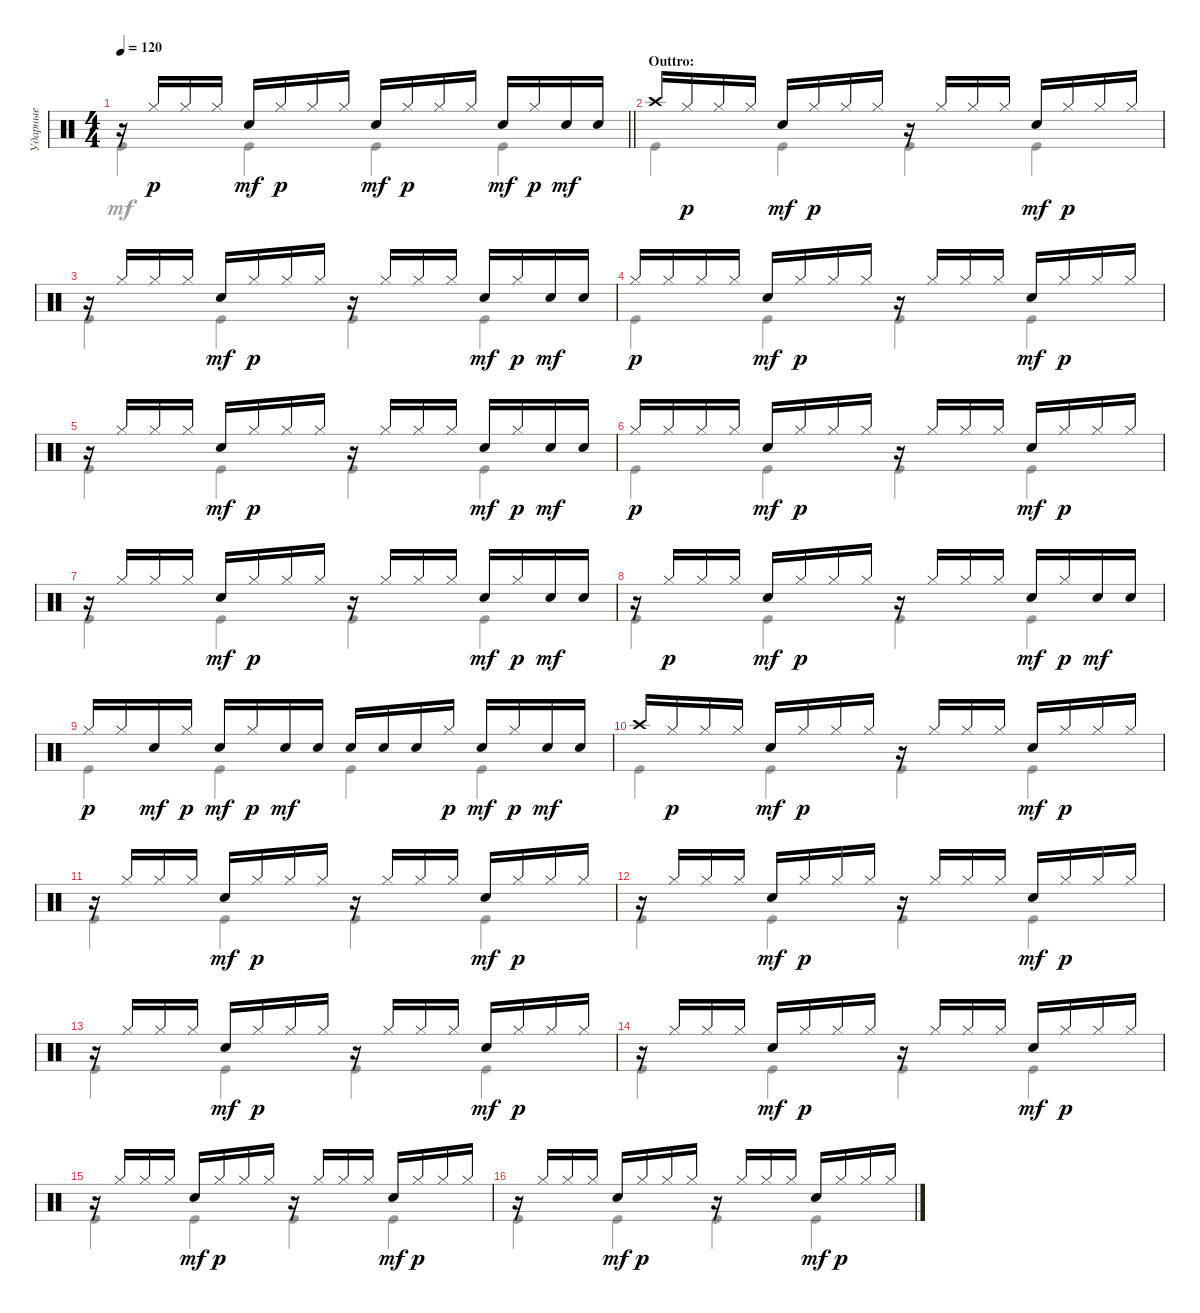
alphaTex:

\track ("Ударные" "Ударные") {instrument percussion}
\staff {score}
\articulation defaults
\voice
\ts (4 4)
\tempo 120
\clef neutral
\barLineRight lightlight
\ks c
r.16{dy p} "Hi-Hat (closed)".16 "Hi-Hat (closed)".16 "Hi-Hat (closed)".16 "Snare (hit) 2".16{dy mf} "Hi-Hat (closed)".16{dy p} "Hi-Hat (closed)".16 "Hi-Hat (closed)".16 "Snare (hit) 2".16{dy mf} "Hi-Hat (closed)".16{dy p} "Hi-Hat (closed)".16 "Hi-Hat (closed)".16 "Snare (hit) 2".16{dy mf} "Hi-Hat (closed)".16{dy p} "Snare (hit) 2".16{dy mf} "Snare (hit) 2".16 |
\section ("" "Outtro:")
"Crash high (hit)".16 "Hi-Hat (closed)".16{dy p} "Hi-Hat (closed)".16 "Hi-Hat (closed)".16 "Snare (hit) 2".16{dy mf} "Hi-Hat (closed)".16{dy p} "Hi-Hat (closed)".16 "Hi-Hat (closed)".16 r.16 "Hi-Hat (closed)".16 "Hi-Hat (closed)".16 "Hi-Hat (closed)".16 "Snare (hit) 2".16{dy mf} "Hi-Hat (closed)".16{dy p} "Hi-Hat (closed)".16 "Hi-Hat (closed)".16 |
r.16 "Hi-Hat (closed)".16 "Hi-Hat (closed)".16 "Hi-Hat (closed)".16 "Snare (hit) 2".16{dy mf} "Hi-Hat (closed)".16{dy p} "Hi-Hat (closed)".16 "Hi-Hat (closed)".16 r.16 "Hi-Hat (closed)".16 "Hi-Hat (closed)".16 "Hi-Hat (closed)".16 "Snare (hit) 2".16{dy mf} "Hi-Hat (closed)".16{dy p} "Snare (hit) 2".16{dy mf} "Snare (hit) 2".16 |
"Hi-Hat (closed)".16{dy p} "Hi-Hat (closed)".16 "Hi-Hat (closed)".16 "Hi-Hat (closed)".16 "Snare (hit) 2".16{dy mf} "Hi-Hat (closed)".16{dy p} "Hi-Hat (closed)".16 "Hi-Hat (closed)".16 r.16 "Hi-Hat (closed)".16 "Hi-Hat (closed)".16 "Hi-Hat (closed)".16 "Snare (hit) 2".16{dy mf} "Hi-Hat (closed)".16{dy p} "Hi-Hat (closed)".16 "Hi-Hat (closed)".16 |
r.16 "Hi-Hat (closed)".16 "Hi-Hat (closed)".16 "Hi-Hat (closed)".16 "Snare (hit) 2".16{dy mf} "Hi-Hat (closed)".16{dy p} "Hi-Hat (closed)".16 "Hi-Hat (closed)".16 r.16 "Hi-Hat (closed)".16 "Hi-Hat (closed)".16 "Hi-Hat (closed)".16 "Snare (hit) 2".16{dy mf} "Hi-Hat (closed)".16{dy p} "Snare (hit) 2".16{dy mf} "Snare (hit) 2".16 |
"Hi-Hat (closed)".16{dy p} "Hi-Hat (closed)".16 "Hi-Hat (closed)".16 "Hi-Hat (closed)".16 "Snare (hit) 2".16{dy mf} "Hi-Hat (closed)".16{dy p} "Hi-Hat (closed)".16 "Hi-Hat (closed)".16 r.16 "Hi-Hat (closed)".16 "Hi-Hat (closed)".16 "Hi-Hat (closed)".16 "Snare (hit) 2".16{dy mf} "Hi-Hat (closed)".16{dy p} "Hi-Hat (closed)".16 "Hi-Hat (closed)".16 |
r.16 "Hi-Hat (closed)".16 "Hi-Hat (closed)".16 "Hi-Hat (closed)".16 "Snare (hit) 2".16{dy mf} "Hi-Hat (closed)".16{dy p} "Hi-Hat (closed)".16 "Hi-Hat (closed)".16 r.16 "Hi-Hat (closed)".16 "Hi-Hat (closed)".16 "Hi-Hat (closed)".16 "Snare (hit) 2".16{dy mf} "Hi-Hat (closed)".16{dy p} "Snare (hit) 2".16{dy mf} "Snare (hit) 2".16 |
r.16 "Hi-Hat (closed)".16{dy p} "Hi-Hat (closed)".16 "Hi-Hat (closed)".16 "Snare (hit) 2".16{dy mf} "Hi-Hat (closed)".16{dy p} "Hi-Hat (closed)".16 "Hi-Hat (closed)".16 r.16 "Hi-Hat (closed)".16 "Hi-Hat (closed)".16 "Hi-Hat (closed)".16 "Snare (hit) 2".16{dy mf} "Hi-Hat (closed)".16{dy p} "Snare (hit) 2".16{dy mf} "Snare (hit) 2".16 |
"Hi-Hat (closed)".16{dy p} "Hi-Hat (closed)".16 "Snare (hit) 2".16{dy mf} "Hi-Hat (closed)".16{dy p} "Snare (hit) 2".16{dy mf} "Hi-Hat (closed)".16{dy p} "Snare (hit) 2".16{dy mf} "Snare (hit) 2".16 "Snare (hit) 2".16 "Snare (hit) 2".16 "Snare (hit) 2".16 "Hi-Hat (closed)".16{dy p} "Snare (hit) 2".16{dy mf} "Hi-Hat (closed)".16{dy p} "Snare (hit) 2".16{dy mf} "Snare (hit) 2".16 |
"Crash high (hit)".16 "Hi-Hat (closed)".16{dy p} "Hi-Hat (closed)".16 "Hi-Hat (closed)".16 "Snare (hit) 2".16{dy mf} "Hi-Hat (closed)".16{dy p} "Hi-Hat (closed)".16 "Hi-Hat (closed)".16 r.16 "Hi-Hat (closed)".16 "Hi-Hat (closed)".16 "Hi-Hat (closed)".16 "Snare (hit) 2".16{dy mf} "Hi-Hat (closed)".16{dy p} "Hi-Hat (closed)".16 "Hi-Hat (closed)".16 |
r.16 "Hi-Hat (closed)".16 "Hi-Hat (closed)".16 "Hi-Hat (closed)".16 "Snare (hit) 2".16{dy mf} "Hi-Hat (closed)".16{dy p} "Hi-Hat (closed)".16 "Hi-Hat (closed)".16 r.16 "Hi-Hat (closed)".16 "Hi-Hat (closed)".16 "Hi-Hat (closed)".16 "Snare (hit) 2".16{dy mf} "Hi-Hat (closed)".16{dy p} "Hi-Hat (closed)".16 "Hi-Hat (closed)".16 |
r.16 "Hi-Hat (closed)".16 "Hi-Hat (closed)".16 "Hi-Hat (closed)".16 "Snare (hit) 2".16{dy mf} "Hi-Hat (closed)".16{dy p} "Hi-Hat (closed)".16 "Hi-Hat (closed)".16 r.16 "Hi-Hat (closed)".16 "Hi-Hat (closed)".16 "Hi-Hat (closed)".16 "Snare (hit) 2".16{dy mf} "Hi-Hat (closed)".16{dy p} "Hi-Hat (closed)".16 "Hi-Hat (closed)".16 |
r.16 "Hi-Hat (closed)".16 "Hi-Hat (closed)".16 "Hi-Hat (closed)".16 "Snare (hit) 2".16{dy mf} "Hi-Hat (closed)".16{dy p} "Hi-Hat (closed)".16 "Hi-Hat (closed)".16 r.16 "Hi-Hat (closed)".16 "Hi-Hat (closed)".16 "Hi-Hat (closed)".16 "Snare (hit) 2".16{dy mf} "Hi-Hat (closed)".16{dy p} "Hi-Hat (closed)".16 "Hi-Hat (closed)".16 |
r.16 "Hi-Hat (closed)".16 "Hi-Hat (closed)".16 "Hi-Hat (closed)".16 "Snare (hit) 2".16{dy mf} "Hi-Hat (closed)".16{dy p} "Hi-Hat (closed)".16 "Hi-Hat (closed)".16 r.16 "Hi-Hat (closed)".16 "Hi-Hat (closed)".16 "Hi-Hat (closed)".16 "Snare (hit) 2".16{dy mf} "Hi-Hat (closed)".16{dy p} "Hi-Hat (closed)".16 "Hi-Hat (closed)".16 |
r.16 "Hi-Hat (closed)".16 "Hi-Hat (closed)".16 "Hi-Hat (closed)".16 "Snare (hit) 2".16{dy mf} "Hi-Hat (closed)".16{dy p} "Hi-Hat (closed)".16 "Hi-Hat (closed)".16 r.16 "Hi-Hat (closed)".16 "Hi-Hat (closed)".16 "Hi-Hat (closed)".16 "Snare (hit) 2".16{dy mf} "Hi-Hat (closed)".16{dy p} "Hi-Hat (closed)".16 "Hi-Hat (closed)".16 |
r.16 "Hi-Hat (closed)".16 "Hi-Hat (closed)".16 "Hi-Hat (closed)".16 "Snare (hit) 2".16{dy mf} "Hi-Hat (closed)".16{dy p} "Hi-Hat (closed)".16 "Hi-Hat (closed)".16 r.16 "Hi-Hat (closed)".16 "Hi-Hat (closed)".16 "Hi-Hat (closed)".16 "Snare (hit) 2".16{dy mf} "Hi-Hat (closed)".16{dy p} "Hi-Hat (closed)".16 "Hi-Hat (closed)".16
\voice
\clef neutral
\ottava regular
\simile none
\barLineRight lightlight
\ks c "Kick (hit)".4{dy mf} "Kick (hit)".4 "Kick (hit)".4 "Kick (hit)".4
|
"Kick (hit)".4 "Kick (hit)".4 "Kick (hit)".4 "Kick (hit)".4 |
"Kick (hit)".4 "Kick (hit)".4 "Kick (hit)".4 "Kick (hit)".4 |
"Kick (hit)".4 "Kick (hit)".4 "Kick (hit)".4 "Kick (hit)".4 |
"Kick (hit)".4 "Kick (hit)".4 "Kick (hit)".4 "Kick (hit)".4 |
"Kick (hit)".4 "Kick (hit)".4 "Kick (hit)".4 "Kick (hit)".4 |
"Kick (hit)".4 "Kick (hit)".4 "Kick (hit)".4 "Kick (hit)".4 |
"Kick (hit)".4 "Kick (hit)".4 "Kick (hit)".4 "Kick (hit)".4 |
"Kick (hit)".4 "Kick (hit)".4 "Kick (hit)".4 "Kick (hit)".4 |
"Kick (hit)".4 "Kick (hit)".4 "Kick (hit)".4 "Kick (hit)".4 |
"Kick (hit)".4 "Kick (hit)".4 "Kick (hit)".4 "Kick (hit)".4 |
"Kick (hit)".4 "Kick (hit)".4 "Kick (hit)".4 "Kick (hit)".4 |
"Kick (hit)".4 "Kick (hit)".4 "Kick (hit)".4 "Kick (hit)".4 |
"Kick (hit)".4 "Kick (hit)".4 "Kick (hit)".4 "Kick (hit)".4 |
"Kick (hit)".4 "Kick (hit)".4 "Kick (hit)".4 "Kick (hit)".4 |
"Kick (hit)".4 "Kick (hit)".4 "Kick (hit)".4 "Kick (hit)".4
